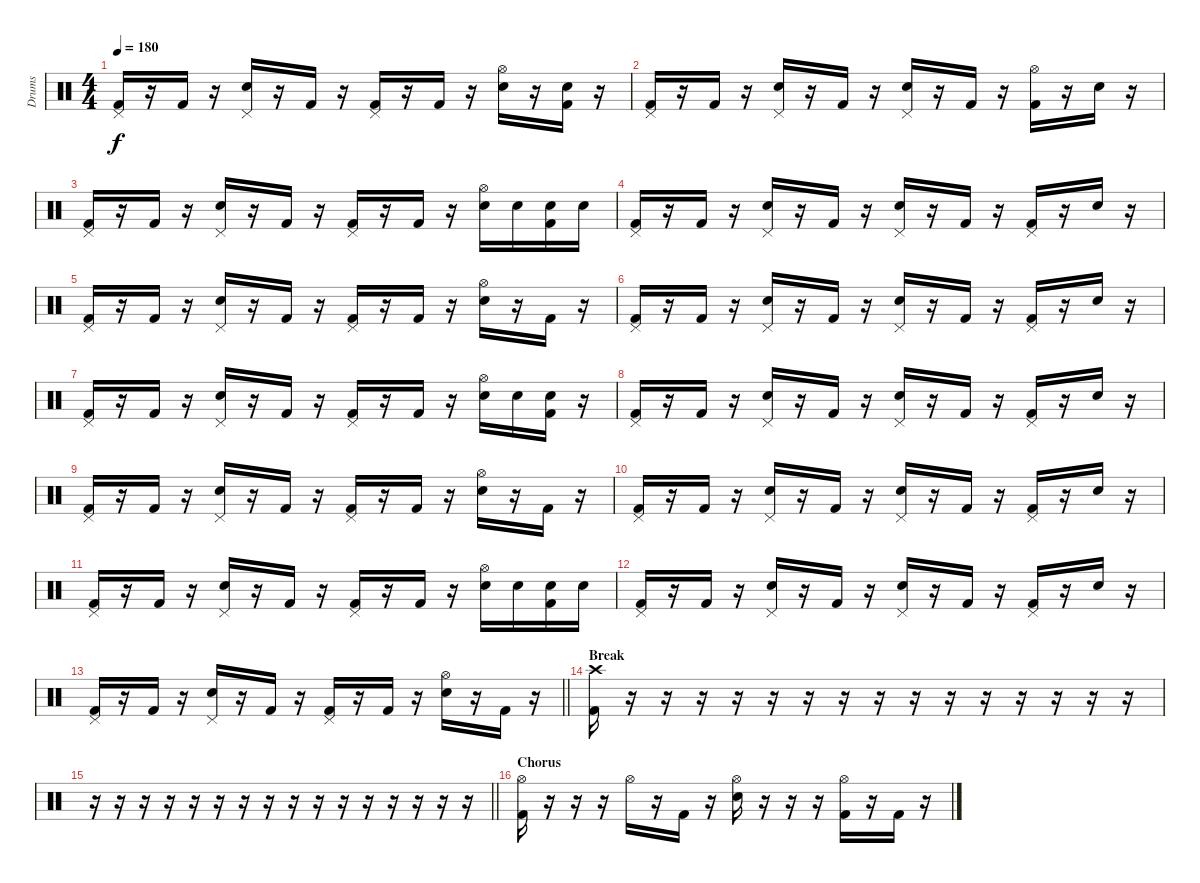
\track ("Drums" "Drums") {instrument percussion}
\staff {score}
\articulation defaults
\ts (4 4)
\tempo 180
\clef neutral
\ks c
("Pedal Hi-Hat (hit)" "Kick (hit) 2").16{dy f} r.16 "Kick (hit) 2".16 r.16 ("Pedal Hi-Hat (hit)" "Electric Snare (hit)").16 r.16 "Kick (hit) 2".16 r.16 ("Pedal Hi-Hat (hit)" "Kick (hit) 2").16 r.16 "Kick (hit) 2".16 r.16 ("Hi-Hat (open)" "Electric Snare (hit)").16 r.16 ("Electric Snare (hit)" "Kick (hit) 2").16 r.16 |
("Pedal Hi-Hat (hit)" "Kick (hit) 2").16 r.16 "Kick (hit) 2".16 r.16 ("Pedal Hi-Hat (hit)" "Electric Snare (hit)").16 r.16 "Kick (hit) 2".16 r.16 ("Pedal Hi-Hat (hit)" "Electric Snare (hit)").16 r.16 "Kick (hit) 2".16 r.16 ("Hi-Hat (open)" "Kick (hit) 2").16 r.16 "Electric Snare (hit)".16 r.16 |
("Pedal Hi-Hat (hit)" "Kick (hit) 2").16 r.16 "Kick (hit) 2".16 r.16 ("Pedal Hi-Hat (hit)" "Electric Snare (hit)").16 r.16 "Kick (hit) 2".16 r.16 ("Pedal Hi-Hat (hit)" "Kick (hit) 2").16 r.16 "Kick (hit) 2".16 r.16 ("Hi-Hat (open)" "Electric Snare (hit)").16 "Electric Snare (hit)".16 ("Electric Snare (hit)" "Kick (hit) 2").16 "Electric Snare (hit)".16 |
("Pedal Hi-Hat (hit)" "Kick (hit) 2").16 r.16 "Kick (hit) 2".16 r.16 ("Pedal Hi-Hat (hit)" "Electric Snare (hit)").16 r.16 "Kick (hit) 2".16 r.16 ("Pedal Hi-Hat (hit)" "Electric Snare (hit)").16 r.16 "Kick (hit) 2".16 r.16 ("Pedal Hi-Hat (hit)" "Kick (hit) 2").16 r.16 "Electric Snare (hit)".16 r.16 |
("Pedal Hi-Hat (hit)" "Kick (hit) 2").16 r.16 "Kick (hit) 2".16 r.16 ("Pedal Hi-Hat (hit)" "Electric Snare (hit)").16 r.16 "Kick (hit) 2".16 r.16 ("Pedal Hi-Hat (hit)" "Kick (hit) 2").16 r.16 "Kick (hit) 2".16 r.16 ("Hi-Hat (open)" "Electric Snare (hit)").16 r.16 "Kick (hit) 2".16 r.16 |
("Pedal Hi-Hat (hit)" "Kick (hit) 2").16 r.16 "Kick (hit) 2".16 r.16 ("Pedal Hi-Hat (hit)" "Electric Snare (hit)").16 r.16 "Kick (hit) 2".16 r.16 ("Pedal Hi-Hat (hit)" "Electric Snare (hit)").16 r.16 "Kick (hit) 2".16 r.16 ("Pedal Hi-Hat (hit)" "Kick (hit) 2").16 r.16 "Electric Snare (hit)".16 r.16 |
("Pedal Hi-Hat (hit)" "Kick (hit) 2").16 r.16 "Kick (hit) 2".16 r.16 ("Pedal Hi-Hat (hit)" "Electric Snare (hit)").16 r.16 "Kick (hit) 2".16 r.16 ("Pedal Hi-Hat (hit)" "Kick (hit) 2").16 r.16 "Kick (hit) 2".16 r.16 ("Hi-Hat (open)" "Electric Snare (hit)").16 "Electric Snare (hit)".16 ("Electric Snare (hit)" "Kick (hit) 2").16 r.16 |
("Pedal Hi-Hat (hit)" "Kick (hit) 2").16 r.16 "Kick (hit) 2".16 r.16 ("Pedal Hi-Hat (hit)" "Electric Snare (hit)").16 r.16 "Kick (hit) 2".16 r.16 ("Pedal Hi-Hat (hit)" "Electric Snare (hit)").16 r.16 "Kick (hit) 2".16 r.16 ("Pedal Hi-Hat (hit)" "Kick (hit) 2").16 r.16 "Electric Snare (hit)".16 r.16 |
("Pedal Hi-Hat (hit)" "Kick (hit) 2").16 r.16 "Kick (hit) 2".16 r.16 ("Pedal Hi-Hat (hit)" "Electric Snare (hit)").16 r.16 "Kick (hit) 2".16 r.16 ("Pedal Hi-Hat (hit)" "Kick (hit) 2").16 r.16 "Kick (hit) 2".16 r.16 ("Hi-Hat (open)" "Electric Snare (hit)").16 r.16 "Kick (hit) 2".16 r.16 |
("Pedal Hi-Hat (hit)" "Kick (hit) 2").16 r.16 "Kick (hit) 2".16 r.16 ("Pedal Hi-Hat (hit)" "Electric Snare (hit)").16 r.16 "Kick (hit) 2".16 r.16 ("Pedal Hi-Hat (hit)" "Electric Snare (hit)").16 r.16 "Kick (hit) 2".16 r.16 ("Pedal Hi-Hat (hit)" "Kick (hit) 2").16 r.16 "Electric Snare (hit)".16 r.16 |
("Pedal Hi-Hat (hit)" "Kick (hit) 2").16 r.16 "Kick (hit) 2".16 r.16 ("Pedal Hi-Hat (hit)" "Electric Snare (hit)").16 r.16 "Kick (hit) 2".16 r.16 ("Pedal Hi-Hat (hit)" "Kick (hit) 2").16 r.16 "Kick (hit) 2".16 r.16 ("Hi-Hat (open)" "Electric Snare (hit)").16 "Electric Snare (hit)".16 ("Electric Snare (hit)" "Kick (hit) 2").16 "Electric Snare (hit)".16 |
("Pedal Hi-Hat (hit)" "Kick (hit) 2").16 r.16 "Kick (hit) 2".16 r.16 ("Pedal Hi-Hat (hit)" "Electric Snare (hit)").16 r.16 "Kick (hit) 2".16 r.16 ("Pedal Hi-Hat (hit)" "Electric Snare (hit)").16 r.16 "Kick (hit) 2".16 r.16 ("Pedal Hi-Hat (hit)" "Kick (hit) 2").16 r.16 "Electric Snare (hit)".16 r.16 |
\barLineRight lightlight
("Pedal Hi-Hat (hit)" "Kick (hit) 2").16 r.16 "Kick (hit) 2".16 r.16 ("Pedal Hi-Hat (hit)" "Electric Snare (hit)").16 r.16 "Kick (hit) 2".16 r.16 ("Pedal Hi-Hat (hit)" "Kick (hit) 2").16 r.16 "Kick (hit) 2".16 r.16 ("Hi-Hat (open)" "Electric Snare (hit)").16 r.16 "Kick (hit) 2".16 r.16 |
\section ("" "Break")
("Crash high (hit)" "Kick (hit) 2").16 r.16 r.16 r.16 r.16 r.16 r.16 r.16 r.16 r.16 r.16 r.16 r.16 r.16 r.16 r.16 |
\barLineRight lightlight
r.16 r.16 r.16 r.16 r.16 r.16 r.16 r.16 r.16 r.16 r.16 r.16 r.16 r.16 r.16 r.16 |
\section ("" "Chorus")
("Hi-Hat (open)" "Kick (hit) 2").16 r.16 r.16 r.16 "Hi-Hat (open)".16 r.16 "Kick (hit) 2".16 r.16 ("Hi-Hat (open)" "Electric Snare (hit)").16 r.16 r.16 r.16 ("Hi-Hat (open)" "Kick (hit) 2").16 r.16 "Kick (hit) 2".16 r.16
